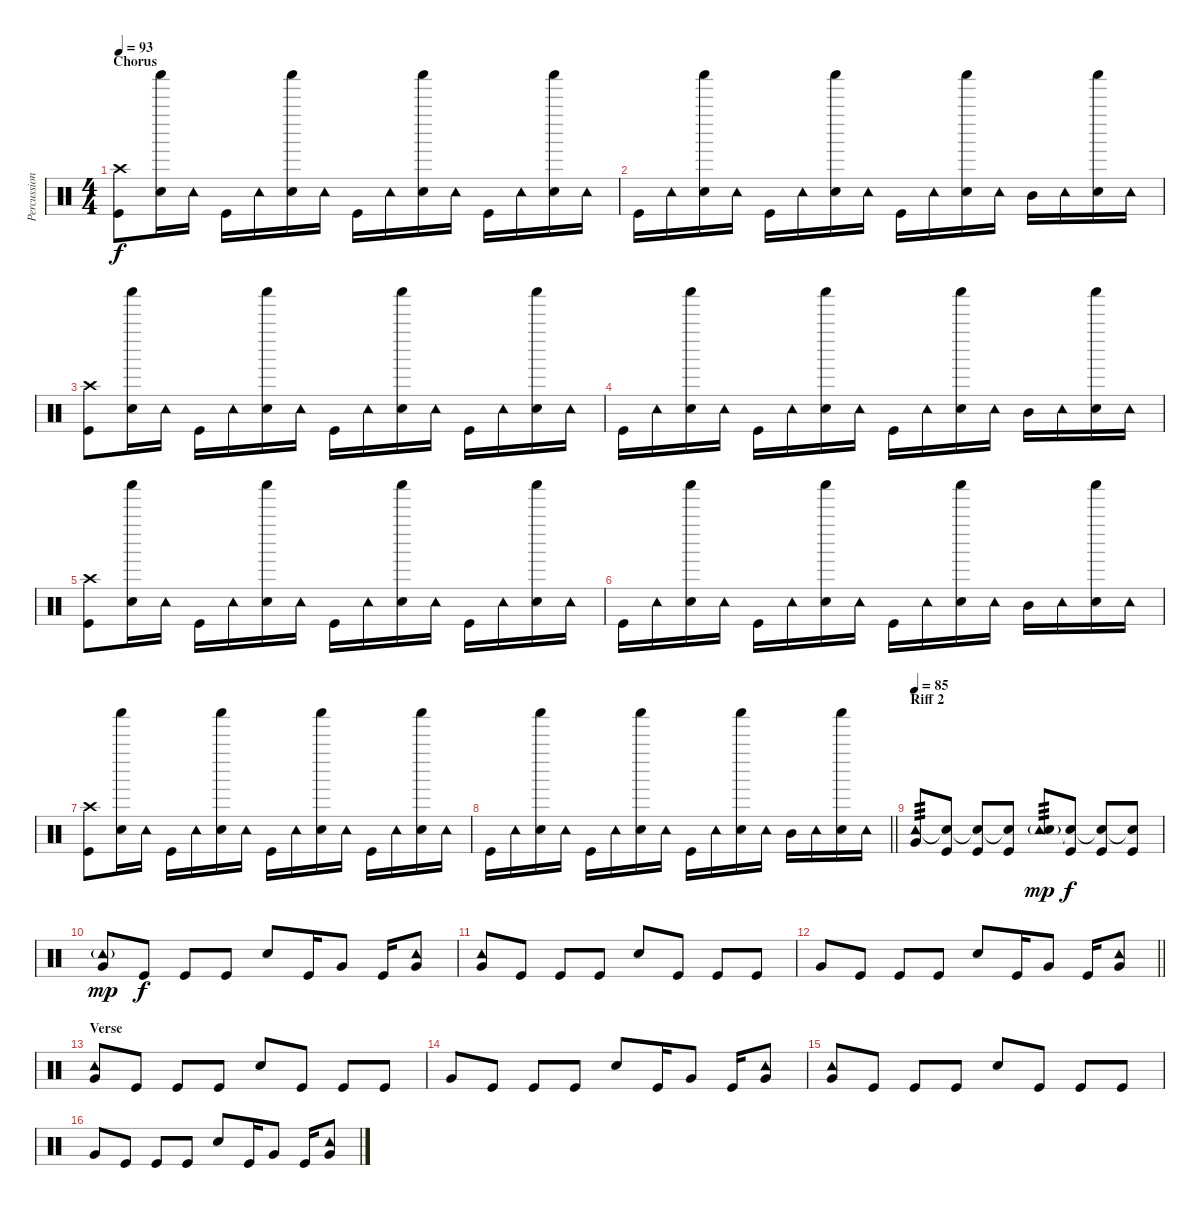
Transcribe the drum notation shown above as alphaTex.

\track ("Percussion" "Percussion") {instrument percussion}
\staff {score}
\articulation defaults
\ts (4 4)
\section ("" "Chorus")
\tempo 93
\clef neutral
\ks c
("Crash high (hit)" "Kick (hit)").8{dy f} ("Shaker (hit)" "Electric Snare (hit)").16 "Tambourine (hit)".16 "Kick (hit)".16 "Tambourine (hit)".16 ("Shaker (hit)" "Electric Snare (hit)").16 "Tambourine (hit)".16 "Kick (hit)".16 "Tambourine (hit)".16 ("Shaker (hit)" "Electric Snare (hit)").16 "Tambourine (hit)".16 "Kick (hit)".16 "Tambourine (hit)".16 ("Shaker (hit)" "Electric Snare (hit)").16 "Tambourine (hit)".16 |
"Kick (hit)".16 "Tambourine (hit)".16 ("Shaker (hit)" "Electric Snare (hit)").16 "Tambourine (hit)".16 "Kick (hit)".16 "Tambourine (hit)".16 ("Shaker (hit)" "Electric Snare (hit)").16 "Tambourine (hit)".16 "Kick (hit)".16 "Tambourine (hit)".16 ("Shaker (hit)" "Electric Snare (hit)").16 "Tambourine (hit)".16 "Mid Tom (hit)".16 "Tambourine (hit)".16 ("Shaker (hit)" "Electric Snare (hit)").16 "Tambourine (hit)".16 |
("Crash high (hit)" "Kick (hit)").8 ("Shaker (hit)" "Electric Snare (hit)").16 "Tambourine (hit)".16 "Kick (hit)".16 "Tambourine (hit)".16 ("Shaker (hit)" "Electric Snare (hit)").16 "Tambourine (hit)".16 "Kick (hit)".16 "Tambourine (hit)".16 ("Shaker (hit)" "Electric Snare (hit)").16 "Tambourine (hit)".16 "Kick (hit)".16 "Tambourine (hit)".16 ("Shaker (hit)" "Electric Snare (hit)").16 "Tambourine (hit)".16 |
"Kick (hit)".16 "Tambourine (hit)".16 ("Shaker (hit)" "Electric Snare (hit)").16 "Tambourine (hit)".16 "Kick (hit)".16 "Tambourine (hit)".16 ("Shaker (hit)" "Electric Snare (hit)").16 "Tambourine (hit)".16 "Kick (hit)".16 "Tambourine (hit)".16 ("Shaker (hit)" "Electric Snare (hit)").16 "Tambourine (hit)".16 "Mid Tom (hit)".16 "Tambourine (hit)".16 ("Shaker (hit)" "Electric Snare (hit)").16 "Tambourine (hit)".16 |
("Crash high (hit)" "Kick (hit)").8 ("Shaker (hit)" "Electric Snare (hit)").16 "Tambourine (hit)".16 "Kick (hit)".16 "Tambourine (hit)".16 ("Shaker (hit)" "Electric Snare (hit)").16 "Tambourine (hit)".16 "Kick (hit)".16 "Tambourine (hit)".16 ("Shaker (hit)" "Electric Snare (hit)").16 "Tambourine (hit)".16 "Kick (hit)".16 "Tambourine (hit)".16 ("Shaker (hit)" "Electric Snare (hit)").16 "Tambourine (hit)".16 |
"Kick (hit)".16 "Tambourine (hit)".16 ("Shaker (hit)" "Electric Snare (hit)").16 "Tambourine (hit)".16 "Kick (hit)".16 "Tambourine (hit)".16 ("Shaker (hit)" "Electric Snare (hit)").16 "Tambourine (hit)".16 "Kick (hit)".16 "Tambourine (hit)".16 ("Shaker (hit)" "Electric Snare (hit)").16 "Tambourine (hit)".16 "Mid Tom (hit)".16 "Tambourine (hit)".16 ("Shaker (hit)" "Electric Snare (hit)").16 "Tambourine (hit)".16 |
("Crash high (hit)" "Kick (hit)").8 ("Shaker (hit)" "Electric Snare (hit)").16 "Tambourine (hit)".16 "Kick (hit)".16 "Tambourine (hit)".16 ("Shaker (hit)" "Electric Snare (hit)").16 "Tambourine (hit)".16 "Kick (hit)".16 "Tambourine (hit)".16 ("Shaker (hit)" "Electric Snare (hit)").16 "Tambourine (hit)".16 "Kick (hit)".16 "Tambourine (hit)".16 ("Shaker (hit)" "Electric Snare (hit)").16 "Tambourine (hit)".16 |
\barLineRight lightlight "Kick (hit)".16 "Tambourine (hit)".16
("Shaker (hit)" "Electric Snare (hit)").16 "Tambourine (hit)".16 "Kick (hit)".16 "Tambourine (hit)".16 ("Shaker (hit)" "Electric Snare (hit)").16 "Tambourine (hit)".16 "Kick (hit)".16 "Tambourine (hit)".16 ("Shaker (hit)" "Electric Snare (hit)").16 "Tambourine (hit)".16 "Mid Tom (hit)".16 "Tambourine (hit)".16 ("Shaker (hit)" "Electric Snare (hit)").16 "Tambourine (hit)".16 |
\section ("" "Riff 2")
\tempo 85
("Tambourine (hit)" "Very Low Tom (hit)").8{tp 3} ("Snare (hit)"{t} "Kick (hit)").8 ("Snare (hit)"{t} "Kick (hit)").8 ("Snare (hit)"{t} "Kick (hit)").8 ("Tambourine (hit)"{g} "Electric Snare (hit)").8{tp 3 dy mp} ("Snare (hit)"{t} "Kick (hit)").8{dy f} ("Snare (hit)"{t} "Kick (hit)").8 ("Snare (hit)"{t} "Kick (hit)").8 |
("Tambourine (hit)"{g} "Very Low Tom (hit)").8{dy mp} "Kick (hit)".8{dy f} "Kick (hit)".8 "Kick (hit)".8 "Electric Snare (hit)".8 "Kick (hit)".16 "Very Low Tom (hit)".8 "Kick (hit)".16 ("Tambourine (hit)" "Very Low Tom (hit)").8 |
("Tambourine (hit)" "Very Low Tom (hit)").8 "Kick (hit)".8 "Kick (hit)".8 "Kick (hit)".8 "Electric Snare (hit)".8 "Kick (hit)".8 "Kick (hit)".8 "Kick (hit)".8 |
\barLineRight lightlight "Very Low Tom (hit)".8 "Kick (hit)".8 "Kick (hit)".8 "Kick (hit)".8 "Electric Snare (hit)".8 "Kick (hit)".16 "Very Low Tom (hit)".8 "Kick (hit)".16
("Tambourine (hit)" "Very Low Tom (hit)").8 |
\section ("" "Verse")
("Tambourine (hit)" "Very Low Tom (hit)").8 "Kick (hit)".8 "Kick (hit)".8 "Kick (hit)".8 "Electric Snare (hit)".8 "Kick (hit)".8 "Kick (hit)".8 "Kick (hit)".8 |
"Very Low Tom (hit)".8 "Kick (hit)".8 "Kick (hit)".8 "Kick (hit)".8 "Electric Snare (hit)".8 "Kick (hit)".16 "Very Low Tom (hit)".8 "Kick (hit)".16 ("Tambourine (hit)" "Very Low Tom (hit)").8 |
("Tambourine (hit)" "Very Low Tom (hit)").8 "Kick (hit)".8 "Kick (hit)".8 "Kick (hit)".8 "Electric Snare (hit)".8 "Kick (hit)".8 "Kick (hit)".8 "Kick (hit)".8 |
"Very Low Tom (hit)".8 "Kick (hit)".8 "Kick (hit)".8 "Kick (hit)".8 "Electric Snare (hit)".8 "Kick (hit)".16 "Very Low Tom (hit)".8 "Kick (hit)".16 ("Tambourine (hit)" "Very Low Tom (hit)").8
